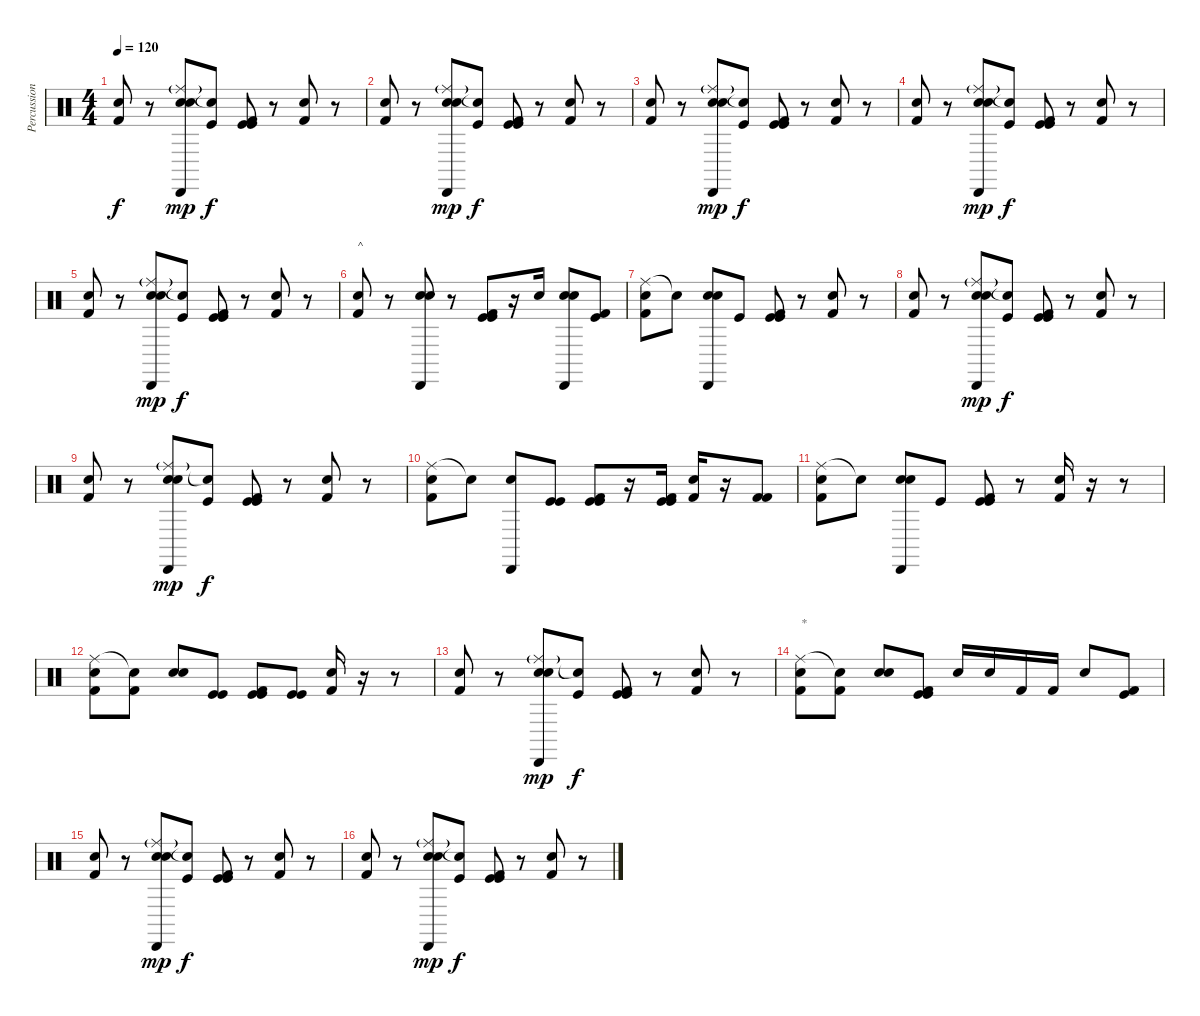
\track ("Percussion" "Percussion") {instrument percussion}
\staff {score}
\articulation defaults
\ts (4 4)
\tempo 120
\clef neutral
\ks c
("Kick (hit) 2" "Snare (hit) 2").8{dy f} r.8 ("Ride (middle)"{g} "Snare (hit) 2" "Cabasa (hit)" "Snare (hit) 2").8{dy mp} ("Snare (hit)"{t} "Kick (hit)").8{dy f} ("Kick (hit)" "Kick (hit)" "Kick (hit) 2").8 r.8 ("Kick (hit) 2" "Snare (hit) 2").8 r.8 |
("Kick (hit) 2" "Snare (hit) 2").8 r.8 ("Ride (middle)"{g} "Snare (hit) 2" "Cabasa (hit)" "Snare (hit) 2").8{dy mp} ("Snare (hit)"{t} "Kick (hit)").8{dy f} ("Kick (hit)" "Kick (hit)" "Kick (hit) 2").8 r.8 ("Kick (hit) 2" "Snare (hit) 2").8 r.8 |
("Kick (hit) 2" "Snare (hit) 2").8 r.8 ("Ride (middle)"{g} "Snare (hit) 2" "Cabasa (hit)" "Snare (hit) 2").8{dy mp} ("Snare (hit)"{t} "Kick (hit)").8{dy f} ("Kick (hit)" "Kick (hit)" "Kick (hit) 2").8 r.8 ("Kick (hit) 2" "Snare (hit) 2").8 r.8 |
("Kick (hit) 2" "Snare (hit) 2").8 r.8 ("Ride (middle)"{g} "Snare (hit) 2" "Cabasa (hit)" "Snare (hit) 2").8{dy mp} ("Snare (hit)"{t} "Kick (hit)").8{dy f} ("Kick (hit)" "Kick (hit)" "Kick (hit) 2").8 r.8 ("Kick (hit) 2" "Snare (hit) 2").8 r.8 |
("Kick (hit) 2" "Snare (hit) 2").8 r.8 ("Ride (middle)"{g} "Snare (hit) 2" "Cabasa (hit)" "Snare (hit) 2").8{dy mp} ("Snare (hit)"{t} "Kick (hit)").8{dy f} ("Kick (hit)" "Kick (hit)" "Kick (hit) 2").8 r.8 ("Kick (hit) 2" "Snare (hit) 2").8 r.8 |
("Kick (hit) 2" "Snare (hit) 2").8{txt "^"} r.8 ("Snare (hit) 2" "Cabasa (hit)" "Snare (hit) 2").8 r.8 ("Kick (hit)" "Kick (hit)" "Kick (hit) 2").8 r.16 "Snare (hit) 2".16 ("Snare (hit) 2" "Cabasa (hit)" "Snare (hit) 2").8 ("Kick (hit)" "Kick (hit) 2").8 |
("Ride (middle)" "Kick (hit) 2" "Snare (hit) 2").8 "Snare (hit)"{t}.8 ("Snare (hit) 2" "Cabasa (hit)" "Snare (hit) 2").8 "Kick (hit)".8 ("Kick (hit)" "Kick (hit)" "Kick (hit) 2").8 r.8 ("Kick (hit) 2" "Snare (hit) 2").8 r.8 |
("Kick (hit) 2" "Snare (hit) 2").8 r.8 ("Ride (middle)"{g} "Snare (hit) 2" "Cabasa (hit)" "Snare (hit) 2").8{dy mp} ("Snare (hit)"{t} "Kick (hit)").8{dy f} ("Kick (hit)" "Kick (hit)" "Kick (hit) 2").8 r.8 ("Kick (hit) 2" "Snare (hit) 2").8 r.8 |
("Kick (hit) 2" "Snare (hit) 2").8 r.8 ("Ride (middle)"{g} "Snare (hit) 2" "Cabasa (hit)" "Snare (hit) 2").8{dy mp} ("Snare (hit)"{t} "Kick (hit)").8{dy f} ("Kick (hit)" "Kick (hit)" "Kick (hit) 2").8 r.8 ("Kick (hit) 2" "Snare (hit) 2").8 r.8 |
("Ride (middle)" "Kick (hit) 2" "Snare (hit) 2").8 "Snare (hit)"{t}.8 ("Cabasa (hit)" "Snare (hit) 2").8 ("Kick (hit)" "Kick (hit)").8 ("Kick (hit)" "Kick (hit)" "Kick (hit) 2").8 r.16 ("Kick (hit)" "Kick (hit)" "Kick (hit) 2").16 ("Kick (hit) 2" "Snare (hit) 2").16 r.16 ("Kick (hit) 2" "Kick (hit) 2").8 |
("Ride (middle)" "Kick (hit) 2" "Snare (hit) 2").8 "Snare (hit)"{t}.8 ("Snare (hit) 2" "Cabasa (hit)" "Snare (hit) 2").8 "Kick (hit)".8 ("Kick (hit)" "Kick (hit)" "Kick (hit) 2").8 r.8 ("Kick (hit) 2" "Snare (hit) 2").16 r.16 r.8 |
("Ride (middle)" "Kick (hit) 2" "Snare (hit) 2").8 ("Snare (hit)"{t} "Kick (hit) 2").8 ("Snare (hit) 2" "Snare (hit) 2").8 ("Kick (hit)" "Kick (hit)").8 ("Kick (hit)" "Kick (hit)" "Kick (hit) 2").8 ("Kick (hit)" "Kick (hit)").8 ("Kick (hit) 2" "Snare (hit) 2").16 r.16 r.8 |
("Kick (hit) 2" "Snare (hit) 2").8 r.8 ("Ride (middle)"{g} "Snare (hit) 2" "Cabasa (hit)" "Snare (hit) 2").8{dy mp} ("Snare (hit)"{t} "Kick (hit)").8{dy f} ("Kick (hit)" "Kick (hit)" "Kick (hit) 2").8 r.8 ("Kick (hit) 2" "Snare (hit) 2").8 r.8 |
("Ride (middle)" "Kick (hit) 2" "Snare (hit) 2").8{txt "*"} ("Snare (hit)"{t} "Kick (hit) 2").8 ("Electric Snare (hit)" "Snare (hit) 2").8 ("Kick (hit)" "Kick (hit)" "Kick (hit) 2").8 "Snare (hit) 2".16 "Snare (hit) 2".16 "Kick (hit) 2".16 "Kick (hit) 2".16 "Snare (hit) 2".8 ("Kick (hit)" "Kick (hit) 2").8 |
("Kick (hit) 2" "Snare (hit) 2").8 r.8 ("Ride (middle)"{g} "Snare (hit) 2" "Cabasa (hit)" "Snare (hit) 2").8{dy mp} ("Snare (hit)"{t} "Kick (hit)").8{dy f} ("Kick (hit)" "Kick (hit)" "Kick (hit) 2").8 r.8 ("Kick (hit) 2" "Snare (hit) 2").8 r.8 |
("Kick (hit) 2" "Snare (hit) 2").8 r.8 ("Ride (middle)"{g} "Snare (hit) 2" "Cabasa (hit)" "Snare (hit) 2").8{dy mp} ("Snare (hit)"{t} "Kick (hit)").8{dy f} ("Kick (hit)" "Kick (hit)" "Kick (hit) 2").8 r.8 ("Kick (hit) 2" "Snare (hit) 2").8 r.8
